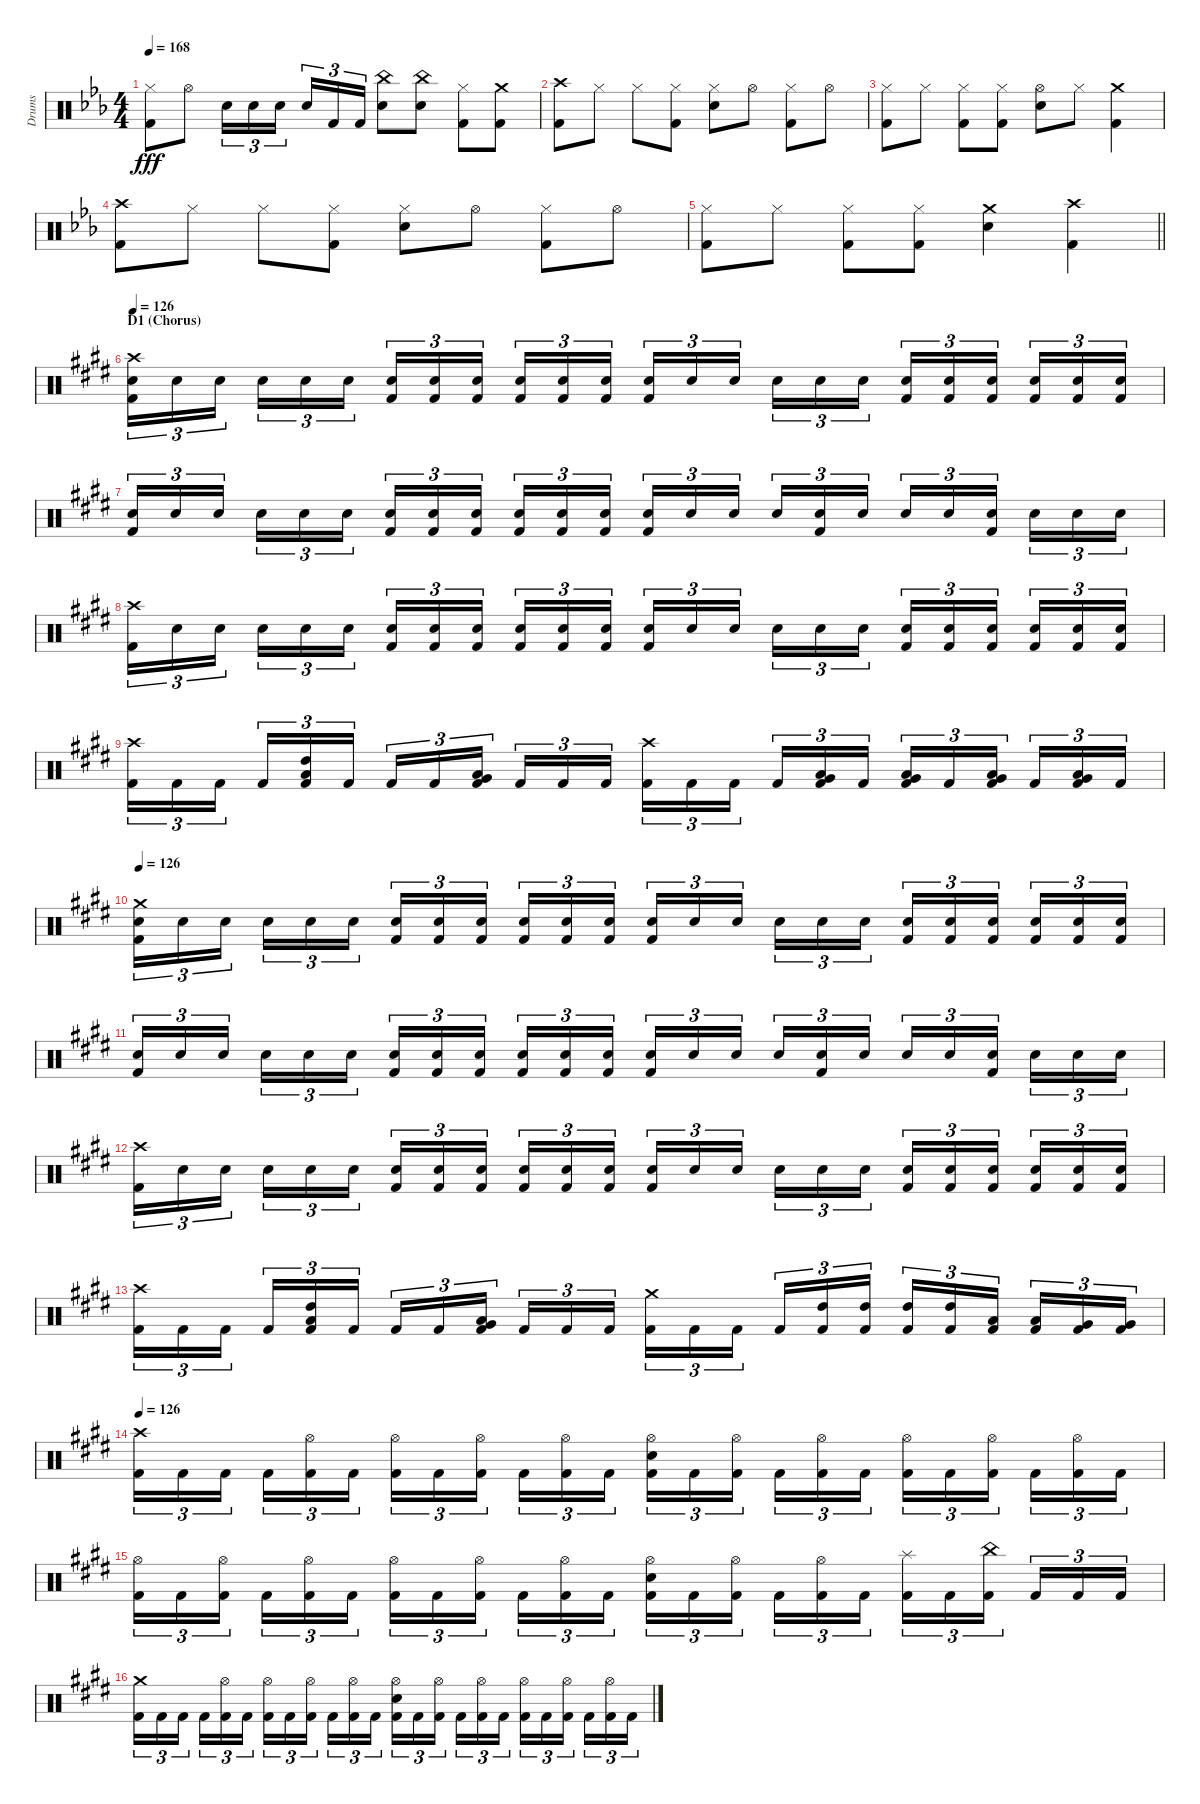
\track ("Drums" "Drums") {instrument percussion}
\staff {score}
\articulation defaults
\ts (4 4)
\tempo 168
\clef neutral
\ks cminor
("Hi-Hat (closed)" "Kick (hit) 2").8{dy fff} "Hi-Hat (open)".8 "Snare (hit) 2".16{tu (3 2)} "Snare (hit) 2".16{tu (3 2)} "Snare (hit) 2".16{tu (3 2) beam splitsecondary} "Snare (hit) 2".16{tu (3 2)} "Kick (hit) 2".16{tu (3 2)} "Kick (hit) 2".16{tu (3 2)} ("Snare (hit) 2" "China (hit)").8 ("China (hit)" "Snare (hit) 2").8 ("Hi-Hat (closed)" "Kick (hit) 2").8 ("Crash medium (hit)" "Kick (hit) 2").8 |
("Crash high (hit)" "Kick (hit) 2").8 "Hi-Hat (closed)".8 "Hi-Hat (closed)".8 ("Hi-Hat (closed)" "Kick (hit) 2").8 ("Snare (hit) 2" "Hi-Hat (closed)").8 "Hi-Hat (open)".8 ("Hi-Hat (closed)" "Kick (hit) 2").8 "Hi-Hat (open)".8 |
("Hi-Hat (closed)" "Kick (hit) 2").8 "Hi-Hat (closed)".8 ("Hi-Hat (closed)" "Kick (hit) 2").8 ("Hi-Hat (closed)" "Kick (hit) 2").8 ("Hi-Hat (open)" "Snare (hit) 2").8 "Hi-Hat (closed)".8 ("Crash medium (hit)" "Kick (hit) 2").4 |
("Crash high (hit)" "Kick (hit) 2").8 "Hi-Hat (closed)".8 "Hi-Hat (closed)".8 ("Hi-Hat (closed)" "Kick (hit) 2").8 ("Snare (hit) 2" "Hi-Hat (closed)").8 "Hi-Hat (open)".8 ("Hi-Hat (closed)" "Kick (hit) 2").8 "Hi-Hat (open)".8 |
\barLineRight lightlight
("Hi-Hat (closed)" "Kick (hit) 2").8 "Hi-Hat (closed)".8 ("Hi-Hat (closed)" "Kick (hit) 2").8 ("Hi-Hat (closed)" "Kick (hit) 2").8 ("Snare (hit) 2" "Crash medium (hit)").4 ("Crash high (hit)" "Kick (hit) 2").4 |
\section ("" "D1 (Chorus)")
\tempo 126
\ks c#minor
("Snare (hit) 2" "Crash high (hit)" "Kick (hit) 2").16{tu (3 2)} "Snare (hit) 2".16{tu (3 2)} "Snare (hit) 2".16{tu (3 2) beam splitsecondary} "Snare (hit) 2".16{tu (3 2)} "Snare (hit) 2".16{tu (3 2)} "Snare (hit) 2".16{tu (3 2)} ("Snare (hit) 2" "Kick (hit) 2").16{tu (3 2)} ("Snare (hit) 2" "Kick (hit) 2").16{tu (3 2)} ("Snare (hit) 2" "Kick (hit) 2").16{tu (3 2) beam splitsecondary} ("Snare (hit) 2" "Kick (hit) 2").16{tu (3 2)} ("Snare (hit) 2" "Kick (hit) 2").16{tu (3 2)} ("Snare (hit) 2" "Kick (hit) 2").16{tu (3 2)} ("Snare (hit) 2" "Kick (hit) 2").16{tu (3 2)} "Snare (hit) 2".16{tu (3 2)} "Snare (hit) 2".16{tu (3 2) beam splitsecondary} "Snare (hit) 2".16{tu (3 2)} "Snare (hit) 2".16{tu (3 2)} "Snare (hit) 2".16{tu (3 2)} ("Snare (hit) 2" "Kick (hit) 2").16{tu (3 2)} ("Snare (hit) 2" "Kick (hit) 2").16{tu (3 2)} ("Snare (hit) 2" "Kick (hit) 2").16{tu (3 2) beam splitsecondary} ("Snare (hit) 2" "Kick (hit) 2").16{tu (3 2)} ("Snare (hit) 2" "Kick (hit) 2").16{tu (3 2)} ("Snare (hit) 2" "Kick (hit) 2").16{tu (3 2)} |
("Snare (hit) 2" "Kick (hit) 2").16{tu (3 2)} "Snare (hit) 2".16{tu (3 2)} "Snare (hit) 2".16{tu (3 2) beam splitsecondary} "Snare (hit) 2".16{tu (3 2)} "Snare (hit) 2".16{tu (3 2)} "Snare (hit) 2".16{tu (3 2)} ("Snare (hit) 2" "Kick (hit) 2").16{tu (3 2)} ("Snare (hit) 2" "Kick (hit) 2").16{tu (3 2)} ("Snare (hit) 2" "Kick (hit) 2").16{tu (3 2) beam splitsecondary} ("Snare (hit) 2" "Kick (hit) 2").16{tu (3 2)} ("Snare (hit) 2" "Kick (hit) 2").16{tu (3 2)} ("Snare (hit) 2" "Kick (hit) 2").16{tu (3 2)} ("Snare (hit) 2" "Kick (hit) 2").16{tu (3 2)} "Snare (hit) 2".16{tu (3 2)} "Snare (hit) 2".16{tu (3 2) beam splitsecondary} "Snare (hit) 2".16{tu (3 2)} ("Snare (hit) 2" "Kick (hit) 2").16{tu (3 2)} "Snare (hit) 2".16{tu (3 2)} "Snare (hit) 2".16{tu (3 2)} "Snare (hit) 2".16{tu (3 2)} ("Snare (hit) 2" "Kick (hit) 2").16{tu (3 2) beam splitsecondary} "Snare (hit) 2".16{tu (3 2)} "Snare (hit) 2".16{tu (3 2)} "Snare (hit) 2".16{tu (3 2)} |
("Crash high (hit)" "Kick (hit) 2").16{tu (3 2)} "Snare (hit) 2".16{tu (3 2)} "Snare (hit) 2".16{tu (3 2) beam splitsecondary} "Snare (hit) 2".16{tu (3 2)} "Snare (hit) 2".16{tu (3 2)} "Snare (hit) 2".16{tu (3 2)} ("Snare (hit) 2" "Kick (hit) 2").16{tu (3 2)} ("Snare (hit) 2" "Kick (hit) 2").16{tu (3 2)} ("Snare (hit) 2" "Kick (hit) 2").16{tu (3 2) beam splitsecondary} ("Snare (hit) 2" "Kick (hit) 2").16{tu (3 2)} ("Snare (hit) 2" "Kick (hit) 2").16{tu (3 2)} ("Snare (hit) 2" "Kick (hit) 2").16{tu (3 2)} ("Snare (hit) 2" "Kick (hit) 2").16{tu (3 2)} "Snare (hit) 2".16{tu (3 2)} "Snare (hit) 2".16{tu (3 2) beam splitsecondary} "Snare (hit) 2".16{tu (3 2)} "Snare (hit) 2".16{tu (3 2)} "Snare (hit) 2".16{tu (3 2)} ("Snare (hit) 2" "Kick (hit) 2").16{tu (3 2)} ("Snare (hit) 2" "Kick (hit) 2").16{tu (3 2)} ("Snare (hit) 2" "Kick (hit) 2").16{tu (3 2) beam splitsecondary} ("Snare (hit) 2" "Kick (hit) 2").16{tu (3 2)} ("Snare (hit) 2" "Kick (hit) 2").16{tu (3 2)} ("Snare (hit) 2" "Kick (hit) 2").16{tu (3 2)} |
("Crash high (hit)" "Kick (hit) 2").16{tu (3 2)} "Kick (hit) 2".16{tu (3 2)} "Kick (hit) 2".16{tu (3 2) beam splitsecondary} "Kick (hit) 2".16{tu (3 2)} ("Kick (hit) 2" "Low Tom (hit)" "High Tom (hit)").16{tu (3 2)} "Kick (hit) 2".16{tu (3 2)} "Kick (hit) 2".16{tu (3 2)} "Kick (hit) 2".16{tu (3 2)} ("Kick (hit) 2" "Very Low Tom (hit)" "Low Tom (hit)").16{tu (3 2) beam splitsecondary} "Kick (hit) 2".16{tu (3 2)} "Kick (hit) 2".16{tu (3 2)} "Kick (hit) 2".16{tu (3 2)} ("Crash high (hit)" "Kick (hit) 2").16{tu (3 2)} "Kick (hit) 2".16{tu (3 2)} "Kick (hit) 2".16{tu (3 2) beam splitsecondary} "Kick (hit) 2".16{tu (3 2)} ("Kick (hit) 2" "Very Low Tom (hit)" "Low Tom (hit)").16{tu (3 2)} "Kick (hit) 2".16{tu (3 2)} ("Kick (hit) 2" "Very Low Tom (hit)" "Low Tom (hit)").16{tu (3 2)} "Kick (hit) 2".16{tu (3 2)} ("Kick (hit) 2" "Very Low Tom (hit)" "Low Floor Tom (hit)").16{tu (3 2) beam splitsecondary} "Kick (hit) 2".16{tu (3 2)} ("Kick (hit) 2" "Low Floor Tom (hit)" "Very Low Tom (hit)").16{tu (3 2)} "Kick (hit) 2".16{tu (3 2)} |
\tempo 126
("Snare (hit) 2" "Crash medium (hit)" "Kick (hit) 2").16{tu (3 2)} "Snare (hit) 2".16{tu (3 2)} "Snare (hit) 2".16{tu (3 2) beam splitsecondary} "Snare (hit) 2".16{tu (3 2)} "Snare (hit) 2".16{tu (3 2)} "Snare (hit) 2".16{tu (3 2)} ("Snare (hit) 2" "Kick (hit) 2").16{tu (3 2)} ("Snare (hit) 2" "Kick (hit) 2").16{tu (3 2)} ("Snare (hit) 2" "Kick (hit) 2").16{tu (3 2) beam splitsecondary} ("Snare (hit) 2" "Kick (hit) 2").16{tu (3 2)} ("Snare (hit) 2" "Kick (hit) 2").16{tu (3 2)} ("Snare (hit) 2" "Kick (hit) 2").16{tu (3 2)} ("Snare (hit) 2" "Kick (hit) 2").16{tu (3 2)} "Snare (hit) 2".16{tu (3 2)} "Snare (hit) 2".16{tu (3 2) beam splitsecondary} "Snare (hit) 2".16{tu (3 2)} "Snare (hit) 2".16{tu (3 2)} "Snare (hit) 2".16{tu (3 2)} ("Snare (hit) 2" "Kick (hit) 2").16{tu (3 2)} ("Snare (hit) 2" "Kick (hit) 2").16{tu (3 2)} ("Snare (hit) 2" "Kick (hit) 2").16{tu (3 2) beam splitsecondary} ("Snare (hit) 2" "Kick (hit) 2").16{tu (3 2)} ("Snare (hit) 2" "Kick (hit) 2").16{tu (3 2)} ("Snare (hit) 2" "Kick (hit) 2").16{tu (3 2)} |
("Snare (hit) 2" "Kick (hit) 2").16{tu (3 2)} "Snare (hit) 2".16{tu (3 2)} "Snare (hit) 2".16{tu (3 2) beam splitsecondary} "Snare (hit) 2".16{tu (3 2)} "Snare (hit) 2".16{tu (3 2)} "Snare (hit) 2".16{tu (3 2)} ("Snare (hit) 2" "Kick (hit) 2").16{tu (3 2)} ("Snare (hit) 2" "Kick (hit) 2").16{tu (3 2)} ("Snare (hit) 2" "Kick (hit) 2").16{tu (3 2) beam splitsecondary} ("Snare (hit) 2" "Kick (hit) 2").16{tu (3 2)} ("Snare (hit) 2" "Kick (hit) 2").16{tu (3 2)} ("Snare (hit) 2" "Kick (hit) 2").16{tu (3 2)} ("Snare (hit) 2" "Kick (hit) 2").16{tu (3 2)} "Snare (hit) 2".16{tu (3 2)} "Snare (hit) 2".16{tu (3 2) beam splitsecondary} "Snare (hit) 2".16{tu (3 2)} ("Snare (hit) 2" "Kick (hit) 2").16{tu (3 2)} "Snare (hit) 2".16{tu (3 2)} "Snare (hit) 2".16{tu (3 2)} "Snare (hit) 2".16{tu (3 2)} ("Snare (hit) 2" "Kick (hit) 2").16{tu (3 2) beam splitsecondary} "Snare (hit) 2".16{tu (3 2)} "Snare (hit) 2".16{tu (3 2)} "Snare (hit) 2".16{tu (3 2)} |
("Crash high (hit)" "Kick (hit) 2").16{tu (3 2)} "Snare (hit) 2".16{tu (3 2)} "Snare (hit) 2".16{tu (3 2) beam splitsecondary} "Snare (hit) 2".16{tu (3 2)} "Snare (hit) 2".16{tu (3 2)} "Snare (hit) 2".16{tu (3 2)} ("Snare (hit) 2" "Kick (hit) 2").16{tu (3 2)} ("Snare (hit) 2" "Kick (hit) 2").16{tu (3 2)} ("Snare (hit) 2" "Kick (hit) 2").16{tu (3 2) beam splitsecondary} ("Snare (hit) 2" "Kick (hit) 2").16{tu (3 2)} ("Snare (hit) 2" "Kick (hit) 2").16{tu (3 2)} ("Snare (hit) 2" "Kick (hit) 2").16{tu (3 2)} ("Snare (hit) 2" "Kick (hit) 2").16{tu (3 2)} "Snare (hit) 2".16{tu (3 2)} "Snare (hit) 2".16{tu (3 2) beam splitsecondary} "Snare (hit) 2".16{tu (3 2)} "Snare (hit) 2".16{tu (3 2)} "Snare (hit) 2".16{tu (3 2)} ("Snare (hit) 2" "Kick (hit) 2").16{tu (3 2)} ("Snare (hit) 2" "Kick (hit) 2").16{tu (3 2)} ("Snare (hit) 2" "Kick (hit) 2").16{tu (3 2) beam splitsecondary} ("Snare (hit) 2" "Kick (hit) 2").16{tu (3 2)} ("Snare (hit) 2" "Kick (hit) 2").16{tu (3 2)} ("Snare (hit) 2" "Kick (hit) 2").16{tu (3 2)} |
("Crash high (hit)" "Kick (hit) 2").16{tu (3 2)} "Kick (hit) 2".16{tu (3 2)} "Kick (hit) 2".16{tu (3 2) beam splitsecondary} "Kick (hit) 2".16{tu (3 2)} ("Kick (hit) 2" "Low Tom (hit)" "High Tom (hit)").16{tu (3 2)} "Kick (hit) 2".16{tu (3 2)} "Kick (hit) 2".16{tu (3 2)} "Kick (hit) 2".16{tu (3 2)} ("Kick (hit) 2" "Very Low Tom (hit)" "Low Tom (hit)").16{tu (3 2) beam splitsecondary} "Kick (hit) 2".16{tu (3 2)} "Kick (hit) 2".16{tu (3 2)} "Kick (hit) 2".16{tu (3 2)} ("Crash medium (hit)" "Kick (hit) 2").16{tu (3 2)} "Kick (hit) 2".16{tu (3 2)} "Kick (hit) 2".16{tu (3 2) beam splitsecondary} "Kick (hit) 2".16{tu (3 2)} ("Kick (hit) 2" "High Tom (hit)").16{tu (3 2)} ("Kick (hit) 2" "High Tom (hit)").16{tu (3 2)} ("Kick (hit) 2" "High Tom (hit)").16{tu (3 2)} ("Kick (hit) 2" "High Tom (hit)").16{tu (3 2)} ("Kick (hit) 2" "Low Tom (hit)").16{tu (3 2) beam splitsecondary} ("Kick (hit) 2" "Low Tom (hit)").16{tu (3 2)} ("Kick (hit) 2" "Very Low Tom (hit)").16{tu (3 2)} ("Kick (hit) 2" "Very Low Tom (hit)").16{tu (3 2)} |
\tempo 126
("Crash high (hit)" "Kick (hit) 2").16{tu (3 2)} "Kick (hit) 2".16{tu (3 2)} "Kick (hit) 2".16{tu (3 2) beam splitsecondary} "Kick (hit) 2".16{tu (3 2)} ("Hi-Hat (open)" "Kick (hit) 2").16{tu (3 2)} "Kick (hit) 2".16{tu (3 2)} ("Hi-Hat (open)" "Kick (hit) 2").16{tu (3 2)} "Kick (hit) 2".16{tu (3 2)} ("Hi-Hat (open)" "Kick (hit) 2").16{tu (3 2) beam splitsecondary} "Kick (hit) 2".16{tu (3 2)} ("Hi-Hat (open)" "Kick (hit) 2").16{tu (3 2)} "Kick (hit) 2".16{tu (3 2)} ("Snare (hit) 2" "Hi-Hat (open)" "Kick (hit) 2").16{tu (3 2)} "Kick (hit) 2".16{tu (3 2)} ("Hi-Hat (open)" "Kick (hit) 2").16{tu (3 2) beam splitsecondary} "Kick (hit) 2".16{tu (3 2)} ("Hi-Hat (open)" "Kick (hit) 2").16{tu (3 2)} "Kick (hit) 2".16{tu (3 2)} ("Hi-Hat (open)" "Kick (hit) 2").16{tu (3 2)} "Kick (hit) 2".16{tu (3 2)} ("Hi-Hat (open)" "Kick (hit) 2").16{tu (3 2) beam splitsecondary} "Kick (hit) 2".16{tu (3 2)} ("Hi-Hat (open)" "Kick (hit) 2").16{tu (3 2)} "Kick (hit) 2".16{tu (3 2)} |
("Hi-Hat (open)" "Kick (hit) 2").16{tu (3 2)} "Kick (hit) 2".16{tu (3 2)} ("Hi-Hat (open)" "Kick (hit) 2").16{tu (3 2) beam splitsecondary} "Kick (hit) 2".16{tu (3 2)} ("Hi-Hat (open)" "Kick (hit) 2").16{tu (3 2)} "Kick (hit) 2".16{tu (3 2)} ("Hi-Hat (open)" "Kick (hit) 2").16{tu (3 2)} "Kick (hit) 2".16{tu (3 2)} ("Hi-Hat (open)" "Kick (hit) 2").16{tu (3 2) beam splitsecondary} "Kick (hit) 2".16{tu (3 2)} ("Hi-Hat (open)" "Kick (hit) 2").16{tu (3 2)} "Kick (hit) 2".16{tu (3 2)} ("Snare (hit) 2" "Hi-Hat (open)" "Kick (hit) 2").16{tu (3 2)} "Kick (hit) 2".16{tu (3 2)} ("Hi-Hat (open)" "Kick (hit) 2").16{tu (3 2) beam splitsecondary} "Kick (hit) 2".16{tu (3 2)} ("Hi-Hat (open)" "Kick (hit) 2").16{tu (3 2)} "Kick (hit) 2".16{tu (3 2)} ("Splash (hit)" "Kick (hit) 2").16{tu (3 2)} "Kick (hit) 2".16{tu (3 2)} ("China (hit)" "Kick (hit) 2").16{tu (3 2) beam splitsecondary} "Kick (hit) 2".16{tu (3 2)} "Kick (hit) 2".16{tu (3 2)} "Kick (hit) 2".16{tu (3 2)} |
("Crash medium (hit)" "Kick (hit) 2").16{tu (3 2)} "Kick (hit) 2".16{tu (3 2)} "Kick (hit) 2".16{tu (3 2) beam splitsecondary} "Kick (hit) 2".16{tu (3 2)} ("Hi-Hat (open)" "Kick (hit) 2").16{tu (3 2)} "Kick (hit) 2".16{tu (3 2)} ("Hi-Hat (open)" "Kick (hit) 2").16{tu (3 2)} "Kick (hit) 2".16{tu (3 2)} ("Hi-Hat (open)" "Kick (hit) 2").16{tu (3 2) beam splitsecondary} "Kick (hit) 2".16{tu (3 2)} ("Hi-Hat (open)" "Kick (hit) 2").16{tu (3 2)} "Kick (hit) 2".16{tu (3 2)} ("Snare (hit) 2" "Hi-Hat (open)" "Kick (hit) 2").16{tu (3 2)} "Kick (hit) 2".16{tu (3 2)} ("Hi-Hat (open)" "Kick (hit) 2").16{tu (3 2) beam splitsecondary} "Kick (hit) 2".16{tu (3 2)} ("Hi-Hat (open)" "Kick (hit) 2").16{tu (3 2)} "Kick (hit) 2".16{tu (3 2)} ("Hi-Hat (open)" "Kick (hit) 2").16{tu (3 2)} "Kick (hit) 2".16{tu (3 2)} ("Hi-Hat (open)" "Kick (hit) 2").16{tu (3 2) beam splitsecondary} "Kick (hit) 2".16{tu (3 2)} ("Hi-Hat (open)" "Kick (hit) 2").16{tu (3 2)} "Kick (hit) 2".16{tu (3 2)}
